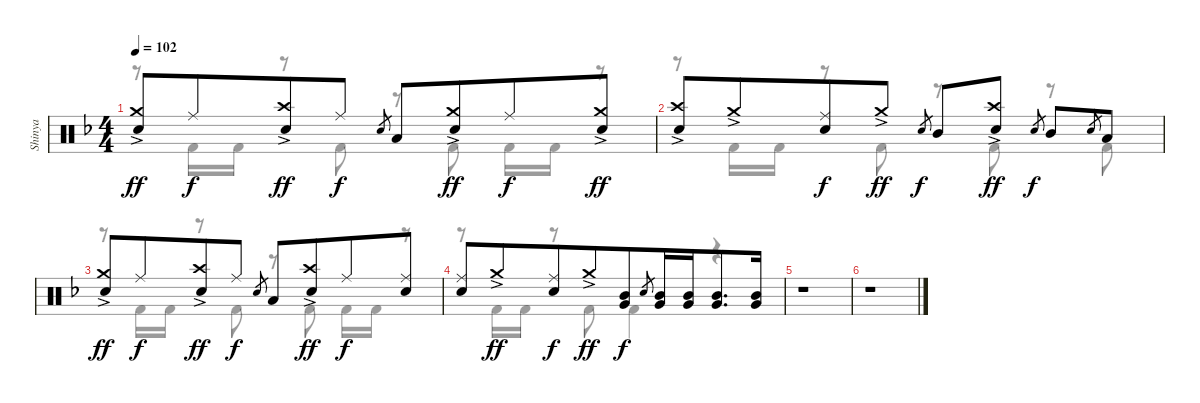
\track ("Shinya" "Shinya") {mute instrument percussion}
\staff {score}
\articulation defaults
\voice
\ts (4 4)
\tempo 102
\clef neutral
\ks f
("Crash medium (hit)"{ac} "Snare (hit) 2").8{dy ff} "Ride (middle)".8{dy f beam merge} ("Crash high (hit)"{ac} "Snare (hit) 2").8{dy ff beam merge} "Ride (middle)".8{dy f} "Snare (hit)"{h}.8{gr beam merge} "Low Tom (hit)".8 ("Crash medium (hit)"{ac} "Snare (hit) 2").8{dy ff beam merge} "Ride (middle)".8{dy f} ("Crash medium (hit)"{ac} "Snare (hit) 2").8{dy ff} |
("Crash high (hit)"{ac} "Snare (hit) 2").8 "Crash medium (hit)"{ac}.8{beam merge} ("Ride (middle)" "Snare (hit) 2").8{dy f beam merge} "Crash medium (hit)"{ac}.8{dy ff} "Snare (hit)"{h}.8{gr dy f beam merge} "Mid Tom (hit)".8 ("Crash high (hit)"{ac} "Snare (hit) 2").8{dy ff} "Snare (hit)"{h}.8{gr dy f beam merge} "Mid Tom (hit)".8 "Snare (hit)"{h}.8{gr} "Low Tom (hit)".8 |
("Crash medium (hit)"{ac} "Snare (hit) 2").8{dy ff} "Ride (middle)".8{dy f beam merge} ("Crash high (hit)"{ac} "Snare (hit) 2").8{dy ff beam merge} "Ride (middle)".8{dy f} "Snare (hit)"{h}.8{gr beam merge} "Low Tom (hit)".8 ("Crash high (hit)"{ac} "Snare (hit) 2").8{dy ff beam merge} "Ride (middle)".8{dy f} ("Ride (middle)" "Snare (hit) 2").8 |
("Ride (middle)" "Snare (hit) 2").8 "Crash medium (hit)"{ac}.8{dy ff beam merge} ("Ride (middle)" "Snare (hit) 2").8{dy f beam merge} "Crash medium (hit)"{ac}.8{dy ff beam merge} ("Mid Tom (hit)" "Very Low Tom (hit)").8{dy f} "Snare (hit)"{h}.8{gr beam merge} ("Mid Tom (hit)" "Very Low Tom (hit)").16 ("Mid Tom (hit)" "Very Low Tom (hit)").16{beam merge} ("Mid Tom (hit)" "Very Low Tom (hit)").8{d} ("Mid Tom (hit)" "Very Low Tom (hit)").16 |
r.1 |
r.1
\voice
\clef neutral
\ottava regular
\simile none
\ks f
r.8{dy f} "Kick (hit) 2".16 "Kick (hit) 2".16 r.8 "Kick (hit) 2".8 r.8 "Kick (hit) 2".8 "Kick (hit) 2".16 "Kick (hit) 2".16 r.8 |
r.8 "Kick (hit) 2".16 "Kick (hit) 2".16 r.8 "Kick (hit) 2".8 r.8 "Kick (hit) 2".8 r.8 "Kick (hit) 2".8 |
r.8 "Kick (hit) 2".16 "Kick (hit) 2".16 r.8 "Kick (hit) 2".8 r.8 "Kick (hit) 2".8 "Kick (hit) 2".16 "Kick (hit) 2".16 r.8 |
r.8 "Kick (hit) 2".16 "Kick (hit) 2".16 r.8 "Kick (hit) 2".8 "Kick (hit) 2".4 r.4 |
r.1 |
r.1
